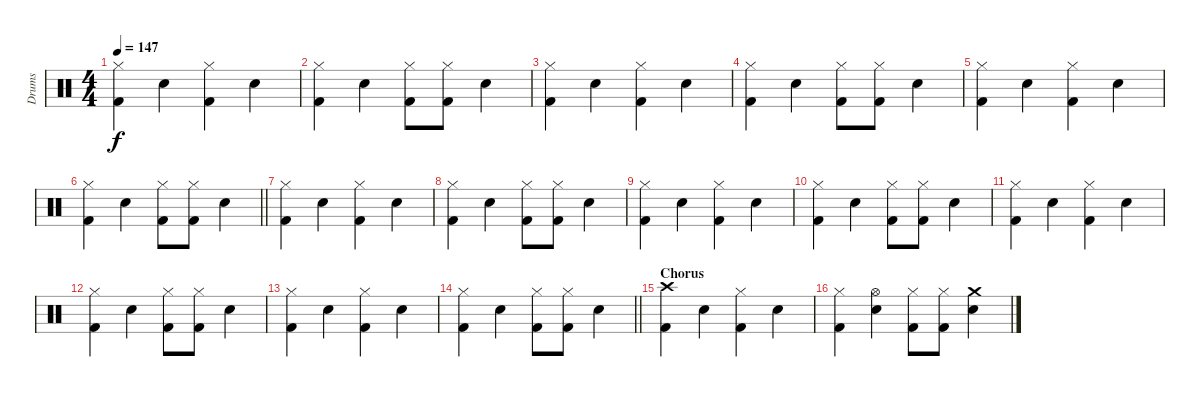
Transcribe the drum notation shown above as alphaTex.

\track ("Drums" "Drums") {instrument percussion}
\staff {score}
\articulation defaults
\ts (4 4)
\tempo 147
\clef neutral
\ks c
("Hi-Hat (closed)" "Kick (hit) 2").4{dy f} "Electric Snare (hit)".4 ("Hi-Hat (closed)" "Kick (hit) 2").4 "Electric Snare (hit)".4 |
("Hi-Hat (closed)" "Kick (hit) 2").4 "Electric Snare (hit)".4 ("Hi-Hat (closed)" "Kick (hit) 2").8 ("Hi-Hat (closed)" "Kick (hit) 2").8 "Electric Snare (hit)".4 |
("Hi-Hat (closed)" "Kick (hit) 2").4 "Electric Snare (hit)".4 ("Hi-Hat (closed)" "Kick (hit) 2").4 "Electric Snare (hit)".4 |
("Hi-Hat (closed)" "Kick (hit) 2").4 "Electric Snare (hit)".4 ("Hi-Hat (closed)" "Kick (hit) 2").8 ("Hi-Hat (closed)" "Kick (hit) 2").8 "Electric Snare (hit)".4 |
("Hi-Hat (closed)" "Kick (hit) 2").4 "Electric Snare (hit)".4 ("Hi-Hat (closed)" "Kick (hit) 2").4 "Electric Snare (hit)".4 |
\barLineRight lightlight
("Hi-Hat (closed)" "Kick (hit) 2").4 "Electric Snare (hit)".4 ("Hi-Hat (closed)" "Kick (hit) 2").8 ("Hi-Hat (closed)" "Kick (hit) 2").8 "Electric Snare (hit)".4 |
\section ("" "")
("Hi-Hat (closed)" "Kick (hit) 2").4 "Electric Snare (hit)".4 ("Hi-Hat (closed)" "Kick (hit) 2").4 "Electric Snare (hit)".4 |
("Hi-Hat (closed)" "Kick (hit) 2").4 "Electric Snare (hit)".4 ("Hi-Hat (closed)" "Kick (hit) 2").8 ("Hi-Hat (closed)" "Kick (hit) 2").8 "Electric Snare (hit)".4 |
("Hi-Hat (closed)" "Kick (hit) 2").4 "Electric Snare (hit)".4 ("Hi-Hat (closed)" "Kick (hit) 2").4 "Electric Snare (hit)".4 |
("Hi-Hat (closed)" "Kick (hit) 2").4 "Electric Snare (hit)".4 ("Hi-Hat (closed)" "Kick (hit) 2").8 ("Hi-Hat (closed)" "Kick (hit) 2").8 "Electric Snare (hit)".4 |
("Hi-Hat (closed)" "Kick (hit) 2").4 "Electric Snare (hit)".4 ("Hi-Hat (closed)" "Kick (hit) 2").4 "Electric Snare (hit)".4 |
("Hi-Hat (closed)" "Kick (hit) 2").4 "Electric Snare (hit)".4 ("Hi-Hat (closed)" "Kick (hit) 2").8 ("Hi-Hat (closed)" "Kick (hit) 2").8 "Electric Snare (hit)".4 |
("Hi-Hat (closed)" "Kick (hit) 2").4 "Electric Snare (hit)".4 ("Hi-Hat (closed)" "Kick (hit) 2").4 "Electric Snare (hit)".4 |
\barLineRight lightlight
("Hi-Hat (closed)" "Kick (hit) 2").4 "Electric Snare (hit)".4 ("Hi-Hat (closed)" "Kick (hit) 2").8 ("Hi-Hat (closed)" "Kick (hit) 2").8 "Electric Snare (hit)".4 |
\section ("" "Chorus")
("Crash high (hit)" "Kick (hit) 2").4 "Electric Snare (hit)".4 ("Hi-Hat (closed)" "Kick (hit) 2").4 "Electric Snare (hit)".4 |
("Hi-Hat (closed)" "Kick (hit) 2").4 ("Hi-Hat (open)" "Electric Snare (hit)").4 ("Hi-Hat (closed)" "Kick (hit) 2").8 ("Hi-Hat (closed)" "Kick (hit) 2").8 ("Crash medium (hit)" "Electric Snare (hit)").4
